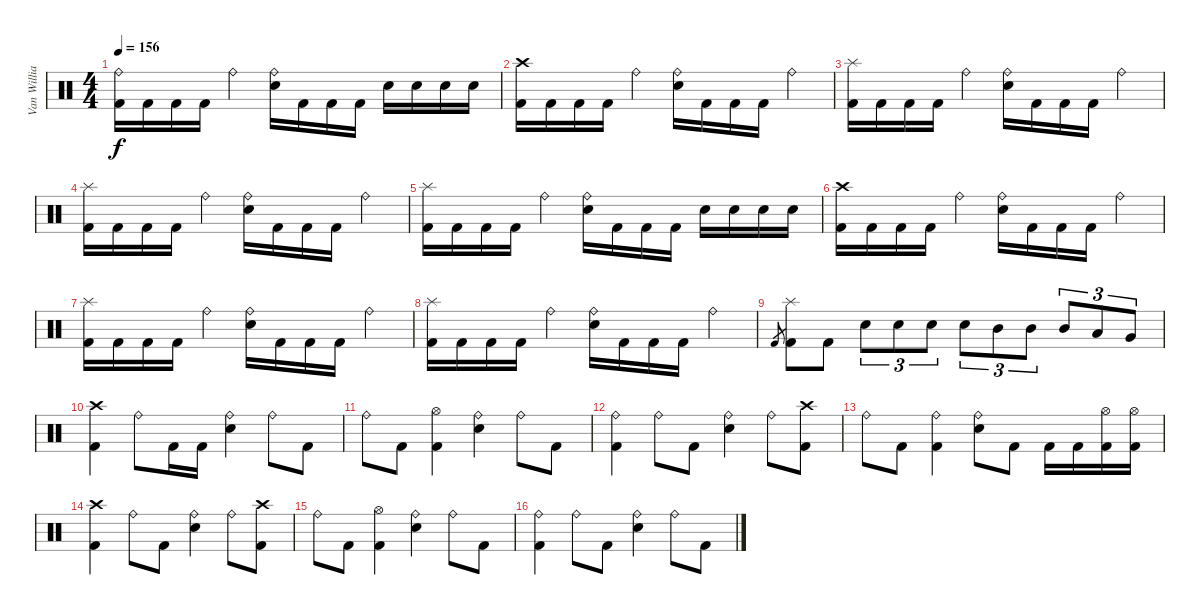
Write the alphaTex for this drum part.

\track ("Van Williams" "Van Willia") {instrument percussion}
\staff {score}
\articulation defaults
\ts (4 4)
\tempo 156
\clef neutral
\ks c
("Ride (bell)" "Kick (hit) 2").16{dy f} "Kick (hit) 2".16 "Kick (hit) 2".16 "Kick (hit) 2".16 "Ride (bell)".4 ("Ride (bell)" "Electric Snare (hit)").16 "Kick (hit) 2".16 "Kick (hit) 2".16 "Kick (hit) 2".16 "Electric Snare (hit)".16 "Electric Snare (hit)".16 "Electric Snare (hit)".16 "Electric Snare (hit)".16 |
("Crash high (hit)" "Kick (hit) 2").16 "Kick (hit) 2".16 "Kick (hit) 2".16 "Kick (hit) 2".16 "Ride (bell)".4 ("Ride (bell)" "Electric Snare (hit)").16 "Kick (hit) 2".16 "Kick (hit) 2".16 "Kick (hit) 2".16 "Ride (bell)".4 |
("Splash (hit)" "Kick (hit) 2").16 "Kick (hit) 2".16 "Kick (hit) 2".16 "Kick (hit) 2".16 "Ride (bell)".4 ("Ride (bell)" "Electric Snare (hit)").16 "Kick (hit) 2".16 "Kick (hit) 2".16 "Kick (hit) 2".16 "Ride (bell)".4 |
("Splash (hit)" "Kick (hit) 2").16 "Kick (hit) 2".16 "Kick (hit) 2".16 "Kick (hit) 2".16 "Ride (bell)".4 ("Ride (bell)" "Electric Snare (hit)").16 "Kick (hit) 2".16 "Kick (hit) 2".16 "Kick (hit) 2".16 "Ride (bell)".4 |
("Splash (hit)" "Kick (hit) 2").16 "Kick (hit) 2".16 "Kick (hit) 2".16 "Kick (hit) 2".16 "Ride (bell)".4 ("Ride (bell)" "Electric Snare (hit)").16 "Kick (hit) 2".16 "Kick (hit) 2".16 "Kick (hit) 2".16 "Electric Snare (hit)".16 "Electric Snare (hit)".16 "Electric Snare (hit)".16 "Electric Snare (hit)".16 |
("Crash high (hit)" "Kick (hit) 2").16 "Kick (hit) 2".16 "Kick (hit) 2".16 "Kick (hit) 2".16 "Ride (bell)".4 ("Ride (bell)" "Electric Snare (hit)").16 "Kick (hit) 2".16 "Kick (hit) 2".16 "Kick (hit) 2".16 "Ride (bell)".4 |
("Splash (hit)" "Kick (hit) 2").16 "Kick (hit) 2".16 "Kick (hit) 2".16 "Kick (hit) 2".16 "Ride (bell)".4 ("Ride (bell)" "Electric Snare (hit)").16 "Kick (hit) 2".16 "Kick (hit) 2".16 "Kick (hit) 2".16 "Ride (bell)".4 |
("Splash (hit)" "Kick (hit) 2").16 "Kick (hit) 2".16 "Kick (hit) 2".16 "Kick (hit) 2".16 "Ride (bell)".4 ("Ride (bell)" "Electric Snare (hit)").16 "Kick (hit) 2".16 "Kick (hit) 2".16 "Kick (hit) 2".16 "Ride (bell)".4 |
"Kick (hit) 2".8{gr} ("Splash (hit)" "Kick (hit) 2").8 "Kick (hit) 2".8 "Electric Snare (hit)".8{tu (3 2)} "Electric Snare (hit)".8{tu (3 2)} "Electric Snare (hit)".8{tu (3 2)} "Electric Snare (hit)".8{tu (3 2)} "Mid Tom (hit)".8{tu (3 2)} "Mid Tom (hit)".8{tu (3 2)} "Mid Tom (hit)".8{tu (3 2)} "Low Tom (hit)".8{tu (3 2)} "Very Low Tom (hit)".8{tu (3 2)} |
\section ("" "")
("Crash high (hit)" "Kick (hit) 2").4 "Ride (bell)".8 "Kick (hit) 2".16 "Kick (hit) 2".16 ("Ride (bell)" "Electric Snare (hit)").4 "Ride (bell)".8 "Kick (hit) 2".8 |
"Ride (bell)".8 "Kick (hit) 2".8 ("Hi-Hat (open)" "Kick (hit) 2").4 ("Ride (bell)" "Electric Snare (hit)").4 "Ride (bell)".8 "Kick (hit) 2".8 |
("Ride (bell)" "Kick (hit) 2").4 "Ride (bell)".8 "Kick (hit) 2".8 ("Ride (bell)" "Electric Snare (hit)").4 "Ride (bell)".8 ("Crash high (hit)" "Kick (hit) 2").8 |
"Ride (bell)".8 "Kick (hit) 2".8 ("Ride (bell)" "Kick (hit) 2").4 ("Ride (bell)" "Electric Snare (hit)").8 "Kick (hit) 2".8 "Kick (hit) 2".16 "Kick (hit) 2".16 ("Hi-Hat (open)" "Kick (hit) 2").16 ("Hi-Hat (open)" "Kick (hit) 2").16 |
("Crash high (hit)" "Kick (hit) 2").4 "Ride (bell)".8 "Kick (hit) 2".8 ("Ride (bell)" "Electric Snare (hit)").4 "Ride (bell)".8 ("Crash high (hit)" "Kick (hit) 2").8 |
"Ride (bell)".8 "Kick (hit) 2".8 ("Hi-Hat (open)" "Kick (hit) 2").4 ("Ride (bell)" "Electric Snare (hit)").4 "Ride (bell)".8 "Kick (hit) 2".8 |
("Ride (bell)" "Kick (hit) 2").4 "Ride (bell)".8 "Kick (hit) 2".8 ("Ride (bell)" "Electric Snare (hit)").4 "Ride (bell)".8 "Kick (hit) 2".8
